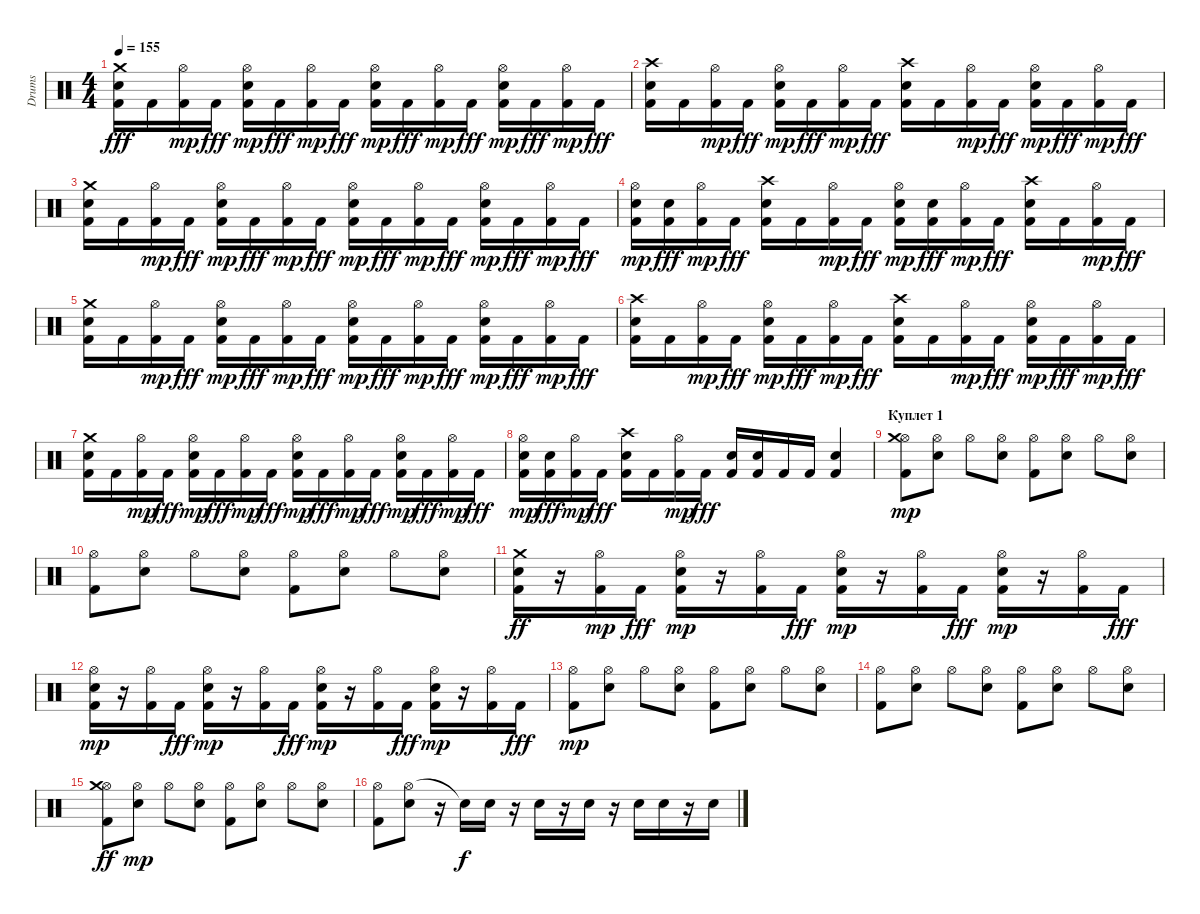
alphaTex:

\track ("Drums" "Drums") {instrument percussion}
\staff {score}
\articulation defaults
\ts (4 4)
\tempo 155
\clef neutral
\ks c
("Kick (hit) 2" "Snare (hit) 2" "Crash medium (hit)").16{dy fff} "Kick (hit) 2".16 ("Kick (hit) 2" "Hi-Hat (open)").16{dy mp} "Kick (hit) 2".16{dy fff} ("Kick (hit) 2" "Hi-Hat (open)" "Snare (hit) 2").16{dy mp} "Kick (hit) 2".16{dy fff} ("Kick (hit) 2" "Hi-Hat (open)").16{dy mp} "Kick (hit) 2".16{dy fff} ("Kick (hit) 2" "Hi-Hat (open)" "Snare (hit) 2").16{dy mp} "Kick (hit) 2".16{dy fff} ("Kick (hit) 2" "Hi-Hat (open)").16{dy mp} "Kick (hit) 2".16{dy fff} ("Kick (hit) 2" "Hi-Hat (open)" "Snare (hit) 2").16{dy mp} "Kick (hit) 2".16{dy fff} ("Kick (hit) 2" "Hi-Hat (open)").16{dy mp} "Kick (hit) 2".16{dy fff} |
("Kick (hit) 2" "Snare (hit) 2" "Crash high (hit)").16 "Kick (hit) 2".16 ("Kick (hit) 2" "Hi-Hat (open)").16{dy mp} "Kick (hit) 2".16{dy fff} ("Kick (hit) 2" "Hi-Hat (open)" "Snare (hit) 2").16{dy mp} "Kick (hit) 2".16{dy fff} ("Kick (hit) 2" "Hi-Hat (open)").16{dy mp} "Kick (hit) 2".16{dy fff} ("Kick (hit) 2" "Snare (hit) 2" "Crash high (hit)").16 "Kick (hit) 2".16 ("Kick (hit) 2" "Hi-Hat (open)").16{dy mp} "Kick (hit) 2".16{dy fff} ("Kick (hit) 2" "Hi-Hat (open)" "Snare (hit) 2").16{dy mp} "Kick (hit) 2".16{dy fff} ("Kick (hit) 2" "Hi-Hat (open)").16{dy mp} "Kick (hit) 2".16{dy fff} |
("Kick (hit) 2" "Snare (hit) 2" "Crash medium (hit)").16 "Kick (hit) 2".16 ("Kick (hit) 2" "Hi-Hat (open)").16{dy mp} "Kick (hit) 2".16{dy fff} ("Kick (hit) 2" "Hi-Hat (open)" "Snare (hit) 2").16{dy mp} "Kick (hit) 2".16{dy fff} ("Kick (hit) 2" "Hi-Hat (open)").16{dy mp} "Kick (hit) 2".16{dy fff} ("Kick (hit) 2" "Hi-Hat (open)" "Snare (hit) 2").16{dy mp} "Kick (hit) 2".16{dy fff} ("Kick (hit) 2" "Hi-Hat (open)").16{dy mp} "Kick (hit) 2".16{dy fff} ("Kick (hit) 2" "Hi-Hat (open)" "Snare (hit) 2").16{dy mp} "Kick (hit) 2".16{dy fff} ("Kick (hit) 2" "Hi-Hat (open)").16{dy mp} "Kick (hit) 2".16{dy fff} |
("Kick (hit) 2" "Hi-Hat (open)" "Snare (hit) 2").16{dy mp} ("Kick (hit) 2" "Snare (hit) 2").16{dy fff} ("Kick (hit) 2" "Hi-Hat (open)").16{dy mp} "Kick (hit) 2".16{dy fff} ("Kick (hit) 2" "Snare (hit) 2" "Crash high (hit)").16 "Kick (hit) 2".16 ("Kick (hit) 2" "Hi-Hat (open)").16{dy mp} "Kick (hit) 2".16{dy fff} ("Kick (hit) 2" "Hi-Hat (open)" "Snare (hit) 2").16{dy mp} ("Kick (hit) 2" "Snare (hit) 2").16{dy fff} ("Kick (hit) 2" "Hi-Hat (open)").16{dy mp} "Kick (hit) 2".16{dy fff} ("Kick (hit) 2" "Snare (hit) 2" "Crash high (hit)").16 "Kick (hit) 2".16 ("Kick (hit) 2" "Hi-Hat (open)").16{dy mp} "Kick (hit) 2".16{dy fff} |
("Kick (hit) 2" "Snare (hit) 2" "Crash medium (hit)").16 "Kick (hit) 2".16 ("Kick (hit) 2" "Hi-Hat (open)").16{dy mp} "Kick (hit) 2".16{dy fff} ("Kick (hit) 2" "Hi-Hat (open)" "Snare (hit) 2").16{dy mp} "Kick (hit) 2".16{dy fff} ("Kick (hit) 2" "Hi-Hat (open)").16{dy mp} "Kick (hit) 2".16{dy fff} ("Kick (hit) 2" "Hi-Hat (open)" "Snare (hit) 2").16{dy mp} "Kick (hit) 2".16{dy fff} ("Kick (hit) 2" "Hi-Hat (open)").16{dy mp} "Kick (hit) 2".16{dy fff} ("Kick (hit) 2" "Hi-Hat (open)" "Snare (hit) 2").16{dy mp} "Kick (hit) 2".16{dy fff} ("Kick (hit) 2" "Hi-Hat (open)").16{dy mp} "Kick (hit) 2".16{dy fff} |
("Kick (hit) 2" "Snare (hit) 2" "Crash high (hit)").16 "Kick (hit) 2".16 ("Kick (hit) 2" "Hi-Hat (open)").16{dy mp} "Kick (hit) 2".16{dy fff} ("Kick (hit) 2" "Hi-Hat (open)" "Snare (hit) 2").16{dy mp} "Kick (hit) 2".16{dy fff} ("Kick (hit) 2" "Hi-Hat (open)").16{dy mp} "Kick (hit) 2".16{dy fff} ("Kick (hit) 2" "Snare (hit) 2" "Crash high (hit)").16 "Kick (hit) 2".16 ("Kick (hit) 2" "Hi-Hat (open)").16{dy mp} "Kick (hit) 2".16{dy fff} ("Kick (hit) 2" "Hi-Hat (open)" "Snare (hit) 2").16{dy mp} "Kick (hit) 2".16{dy fff} ("Kick (hit) 2" "Hi-Hat (open)").16{dy mp} "Kick (hit) 2".16{dy fff} |
("Kick (hit) 2" "Snare (hit) 2" "Crash medium (hit)").16 "Kick (hit) 2".16 ("Kick (hit) 2" "Hi-Hat (open)").16{dy mp} "Kick (hit) 2".16{dy fff} ("Kick (hit) 2" "Hi-Hat (open)" "Snare (hit) 2").16{dy mp} "Kick (hit) 2".16{dy fff} ("Kick (hit) 2" "Hi-Hat (open)").16{dy mp} "Kick (hit) 2".16{dy fff} ("Kick (hit) 2" "Hi-Hat (open)" "Snare (hit) 2").16{dy mp} "Kick (hit) 2".16{dy fff} ("Kick (hit) 2" "Hi-Hat (open)").16{dy mp} "Kick (hit) 2".16{dy fff} ("Kick (hit) 2" "Hi-Hat (open)" "Snare (hit) 2").16{dy mp} "Kick (hit) 2".16{dy fff} ("Kick (hit) 2" "Hi-Hat (open)").16{dy mp} "Kick (hit) 2".16{dy fff} |
("Kick (hit) 2" "Hi-Hat (open)" "Snare (hit) 2").16{dy mp} ("Kick (hit) 2" "Snare (hit) 2").16{dy fff} ("Kick (hit) 2" "Hi-Hat (open)").16{dy mp} "Kick (hit) 2".16{dy fff} ("Kick (hit) 2" "Snare (hit) 2" "Crash high (hit)").16 "Kick (hit) 2".16 ("Kick (hit) 2" "Hi-Hat (open)").16{dy mp} "Kick (hit) 2".16{dy fff} ("Kick (hit) 2" "Snare (hit) 2").16 ("Kick (hit) 2" "Snare (hit) 2").16 "Kick (hit) 2".16 "Kick (hit) 2".16 ("Kick (hit) 2" "Snare (hit) 2").4 |
\section ("" "Куплет 1")
("Kick (hit) 2" "Hi-Hat (open)" "Crash medium (hit)").8{dy mp} ("Hi-Hat (open)" "Snare (hit) 2").8 "Hi-Hat (open)".8 ("Hi-Hat (open)" "Snare (hit) 2").8 ("Kick (hit) 2" "Hi-Hat (open)").8 ("Hi-Hat (open)" "Snare (hit) 2").8 "Hi-Hat (open)".8 ("Hi-Hat (open)" "Snare (hit) 2").8 |
("Kick (hit) 2" "Hi-Hat (open)").8 ("Hi-Hat (open)" "Snare (hit) 2").8 "Hi-Hat (open)".8 ("Hi-Hat (open)" "Snare (hit) 2").8 ("Kick (hit) 2" "Hi-Hat (open)").8 ("Hi-Hat (open)" "Snare (hit) 2").8 "Hi-Hat (open)".8 ("Hi-Hat (open)" "Snare (hit) 2").8 |
("Kick (hit) 2" "Snare (hit) 2" "Crash medium (hit)").16{dy ff} r.16 ("Kick (hit) 2" "Hi-Hat (open)").16{dy mp} "Kick (hit) 2".16{dy fff} ("Kick (hit) 2" "Hi-Hat (open)" "Snare (hit) 2").16{dy mp} r.16 ("Kick (hit) 2" "Hi-Hat (open)").16 "Kick (hit) 2".16{dy fff} ("Kick (hit) 2" "Hi-Hat (open)" "Snare (hit) 2").16{dy mp} r.16 ("Kick (hit) 2" "Hi-Hat (open)").16 "Kick (hit) 2".16{dy fff} ("Kick (hit) 2" "Hi-Hat (open)" "Snare (hit) 2").16{dy mp} r.16 ("Kick (hit) 2" "Hi-Hat (open)").16 "Kick (hit) 2".16{dy fff} |
("Kick (hit) 2" "Hi-Hat (open)" "Snare (hit) 2").16{dy mp} r.16 ("Kick (hit) 2" "Hi-Hat (open)").16 "Kick (hit) 2".16{dy fff} ("Kick (hit) 2" "Hi-Hat (open)" "Snare (hit) 2").16{dy mp} r.16 ("Kick (hit) 2" "Hi-Hat (open)").16 "Kick (hit) 2".16{dy fff} ("Kick (hit) 2" "Hi-Hat (open)" "Snare (hit) 2").16{dy mp} r.16 ("Kick (hit) 2" "Hi-Hat (open)").16 "Kick (hit) 2".16{dy fff} ("Kick (hit) 2" "Hi-Hat (open)" "Snare (hit) 2").16{dy mp} r.16 ("Kick (hit) 2" "Hi-Hat (open)").16 "Kick (hit) 2".16{dy fff} |
("Kick (hit) 2" "Hi-Hat (open)").8{dy mp} ("Hi-Hat (open)" "Snare (hit) 2").8 "Hi-Hat (open)".8 ("Hi-Hat (open)" "Snare (hit) 2").8 ("Kick (hit) 2" "Hi-Hat (open)").8 ("Hi-Hat (open)" "Snare (hit) 2").8 "Hi-Hat (open)".8 ("Hi-Hat (open)" "Snare (hit) 2").8 |
("Kick (hit) 2" "Hi-Hat (open)").8 ("Hi-Hat (open)" "Snare (hit) 2").8 "Hi-Hat (open)".8 ("Hi-Hat (open)" "Snare (hit) 2").8 ("Kick (hit) 2" "Hi-Hat (open)").8 ("Hi-Hat (open)" "Snare (hit) 2").8 "Hi-Hat (open)".8 ("Hi-Hat (open)" "Snare (hit) 2").8 |
("Kick (hit) 2" "Hi-Hat (open)" "Crash medium (hit)").8{dy ff} ("Hi-Hat (open)" "Snare (hit) 2").8{dy mp} "Hi-Hat (open)".8 ("Hi-Hat (open)" "Snare (hit) 2").8 ("Kick (hit) 2" "Hi-Hat (open)").8 ("Hi-Hat (open)" "Snare (hit) 2").8 "Hi-Hat (open)".8 ("Hi-Hat (open)" "Snare (hit) 2").8 |
("Kick (hit) 2" "Hi-Hat (open)").8 ("Hi-Hat (open)" "Snare (hit) 2").8 r.16 "Snare (hit) 2"{t}.16{dy f} "Snare (hit) 2".16 r.16 "Snare (hit) 2".16 r.16 "Snare (hit) 2".16 r.16 "Snare (hit) 2".16 "Snare (hit) 2".16 r.16 "Snare (hit) 2".16
